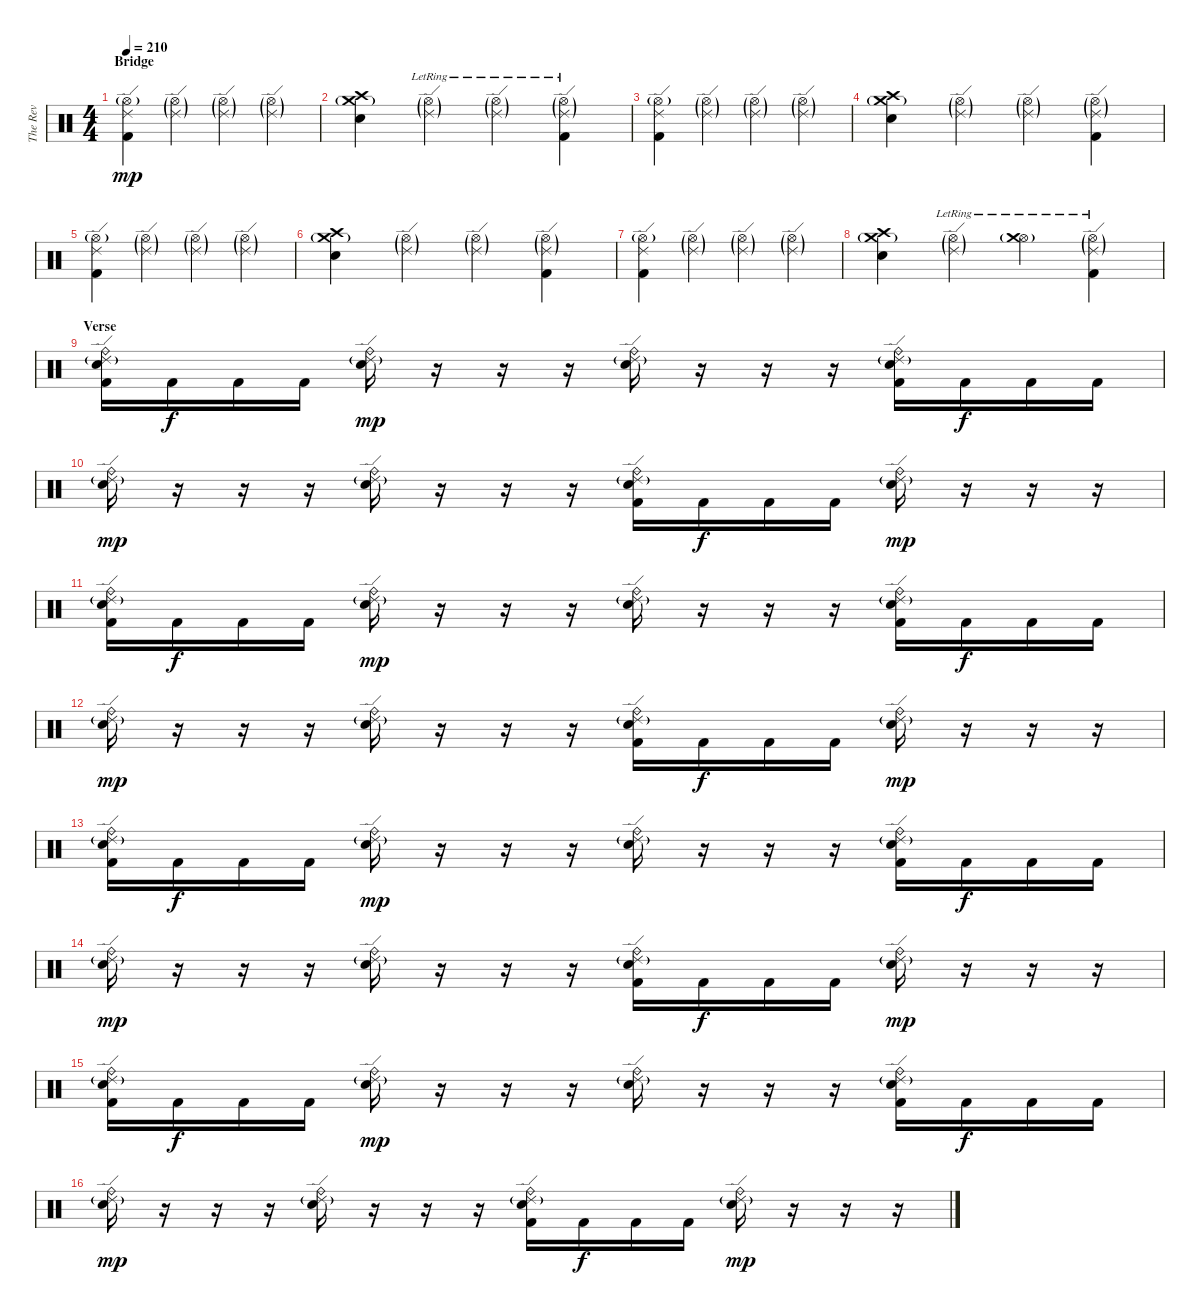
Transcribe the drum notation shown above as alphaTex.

\track ("The Rev" "The Rev") {instrument percussion}
\staff {score}
\articulation defaults
\ts (4 4)
\section ("" "Bridge")
\tempo 210
\clef neutral
\ks c
("Hi-Hat (open)"{g} "Ride (edge) 2" "Kick (hit) 2").4{dy mp} ("Hi-Hat (open)"{g} "Ride (edge) 2"{g}).4 ("Hi-Hat (open)"{g} "Ride (edge) 2"{g}).4 ("Hi-Hat (open)"{g} "Ride (edge) 2"{g}).4 |
("Crash medium (hit)"{g} "Crash high (hit)" "Electric Snare (hit)").4 ("Hi-Hat (open)"{g} "Ride (edge) 2"{g lr}).4 ("Hi-Hat (open)"{g} "Ride (edge) 2"{g lr}).4 ("Hi-Hat (open)"{g} "Ride (edge) 2"{g lr} "Kick (hit) 2").4 |
("Hi-Hat (open)"{g} "Ride (edge) 2" "Kick (hit) 2").4 ("Hi-Hat (open)"{g} "Ride (edge) 2"{g}).4 ("Hi-Hat (open)"{g} "Ride (edge) 2"{g}).4 ("Hi-Hat (open)"{g} "Ride (edge) 2"{g}).4 |
("Crash medium (hit)"{g} "Crash high (hit)" "Electric Snare (hit)").4 ("Hi-Hat (open)"{g} "Ride (edge) 2"{g}).4 ("Hi-Hat (open)"{g} "Ride (edge) 2"{g}).4 ("Hi-Hat (open)"{g} "Ride (edge) 2"{g} "Kick (hit) 2").4 |
("Hi-Hat (open)"{g} "Ride (edge) 2" "Kick (hit) 2").4 ("Hi-Hat (open)"{g} "Ride (edge) 2"{g}).4 ("Hi-Hat (open)"{g} "Ride (edge) 2"{g}).4 ("Hi-Hat (open)"{g} "Ride (edge) 2"{g}).4 |
("Crash medium (hit)"{g} "Crash high (hit)" "Electric Snare (hit)").4 ("Hi-Hat (open)"{g} "Ride (edge) 2"{g}).4 ("Hi-Hat (open)"{g} "Ride (edge) 2"{g}).4 ("Hi-Hat (open)"{g} "Ride (edge) 2"{g} "Kick (hit) 2").4 |
("Hi-Hat (open)"{g} "Ride (edge) 2" "Kick (hit) 2").4 ("Hi-Hat (open)"{g} "Ride (edge) 2"{g}).4 ("Hi-Hat (open)"{g} "Ride (edge) 2"{g}).4 ("Hi-Hat (open)"{g} "Ride (edge) 2"{g}).4 |
("Crash medium (hit)"{g} "Crash high (hit)" "Electric Snare (hit)").4 ("Hi-Hat (open)"{g} "Ride (edge) 2"{g lr}).4 ("Hi-Hat (open)"{g} "Crash medium (hit)"{lr}).4 ("Hi-Hat (open)"{g} "Ride (edge) 2"{g lr} "Kick (hit) 2").4 |
\section ("" "Verse")
("Ride (edge) 2"{g} "Ride (bell)" "Electric Snare (hit)" "Kick (hit) 2").16 "Kick (hit) 2".16{dy f} "Kick (hit) 2".16 "Kick (hit) 2".16 ("Ride (edge) 2"{g} "Ride (bell)" "Electric Snare (hit)").16{dy mp} r.16 r.16 r.16 ("Ride (edge) 2"{g} "Ride (bell)" "Electric Snare (hit)").16 r.16 r.16 r.16 ("Ride (edge) 2"{g} "Ride (bell)" "Electric Snare (hit)" "Kick (hit) 2").16 "Kick (hit) 2".16{dy f} "Kick (hit) 2".16 "Kick (hit) 2".16 |
("Ride (edge) 2"{g} "Ride (bell)" "Electric Snare (hit)").16{dy mp} r.16 r.16 r.16 ("Ride (edge) 2"{g} "Ride (bell)" "Electric Snare (hit)").16 r.16 r.16 r.16 ("Ride (edge) 2"{g} "Ride (bell)" "Electric Snare (hit)" "Kick (hit) 2").16 "Kick (hit) 2".16{dy f} "Kick (hit) 2".16 "Kick (hit) 2".16 ("Ride (edge) 2"{g} "Ride (bell)" "Electric Snare (hit)").16{dy mp} r.16 r.16 r.16 |
("Ride (edge) 2"{g} "Ride (bell)" "Electric Snare (hit)" "Kick (hit) 2").16 "Kick (hit) 2".16{dy f} "Kick (hit) 2".16 "Kick (hit) 2".16 ("Ride (edge) 2"{g} "Ride (bell)" "Electric Snare (hit)").16{dy mp} r.16 r.16 r.16 ("Ride (edge) 2"{g} "Ride (bell)" "Electric Snare (hit)").16 r.16 r.16 r.16 ("Ride (edge) 2"{g} "Ride (bell)" "Electric Snare (hit)" "Kick (hit) 2").16 "Kick (hit) 2".16{dy f} "Kick (hit) 2".16 "Kick (hit) 2".16 |
("Ride (edge) 2"{g} "Ride (bell)" "Electric Snare (hit)").16{dy mp} r.16 r.16 r.16 ("Ride (edge) 2"{g} "Ride (bell)" "Electric Snare (hit)").16 r.16 r.16 r.16 ("Ride (edge) 2"{g} "Ride (bell)" "Electric Snare (hit)" "Kick (hit) 2").16 "Kick (hit) 2".16{dy f} "Kick (hit) 2".16 "Kick (hit) 2".16 ("Ride (edge) 2"{g} "Ride (bell)" "Electric Snare (hit)").16{dy mp} r.16 r.16 r.16 |
("Ride (edge) 2"{g} "Ride (bell)" "Electric Snare (hit)" "Kick (hit) 2").16 "Kick (hit) 2".16{dy f} "Kick (hit) 2".16 "Kick (hit) 2".16 ("Ride (edge) 2"{g} "Ride (bell)" "Electric Snare (hit)").16{dy mp} r.16 r.16 r.16 ("Ride (edge) 2"{g} "Ride (bell)" "Electric Snare (hit)").16 r.16 r.16 r.16 ("Ride (edge) 2"{g} "Ride (bell)" "Electric Snare (hit)" "Kick (hit) 2").16 "Kick (hit) 2".16{dy f} "Kick (hit) 2".16 "Kick (hit) 2".16 |
("Ride (edge) 2"{g} "Ride (bell)" "Electric Snare (hit)").16{dy mp} r.16 r.16 r.16 ("Ride (edge) 2"{g} "Ride (bell)" "Electric Snare (hit)").16 r.16 r.16 r.16 ("Ride (edge) 2"{g} "Ride (bell)" "Electric Snare (hit)" "Kick (hit) 2").16 "Kick (hit) 2".16{dy f} "Kick (hit) 2".16 "Kick (hit) 2".16 ("Ride (edge) 2"{g} "Ride (bell)" "Electric Snare (hit)").16{dy mp} r.16 r.16 r.16 |
("Ride (edge) 2"{g} "Ride (bell)" "Electric Snare (hit)" "Kick (hit) 2").16 "Kick (hit) 2".16{dy f} "Kick (hit) 2".16 "Kick (hit) 2".16 ("Ride (edge) 2"{g} "Ride (bell)" "Electric Snare (hit)").16{dy mp} r.16 r.16 r.16 ("Ride (edge) 2"{g} "Ride (bell)" "Electric Snare (hit)").16 r.16 r.16 r.16 ("Ride (edge) 2"{g} "Ride (bell)" "Electric Snare (hit)" "Kick (hit) 2").16 "Kick (hit) 2".16{dy f} "Kick (hit) 2".16 "Kick (hit) 2".16 |
("Ride (edge) 2"{g} "Ride (bell)" "Electric Snare (hit)").16{dy mp} r.16 r.16 r.16 ("Ride (edge) 2"{g} "Ride (bell)" "Electric Snare (hit)").16 r.16 r.16 r.16 ("Ride (edge) 2"{g} "Ride (bell)" "Electric Snare (hit)" "Kick (hit) 2").16 "Kick (hit) 2".16{dy f} "Kick (hit) 2".16 "Kick (hit) 2".16 ("Ride (edge) 2"{g} "Ride (bell)" "Electric Snare (hit)").16{dy mp} r.16 r.16 r.16
